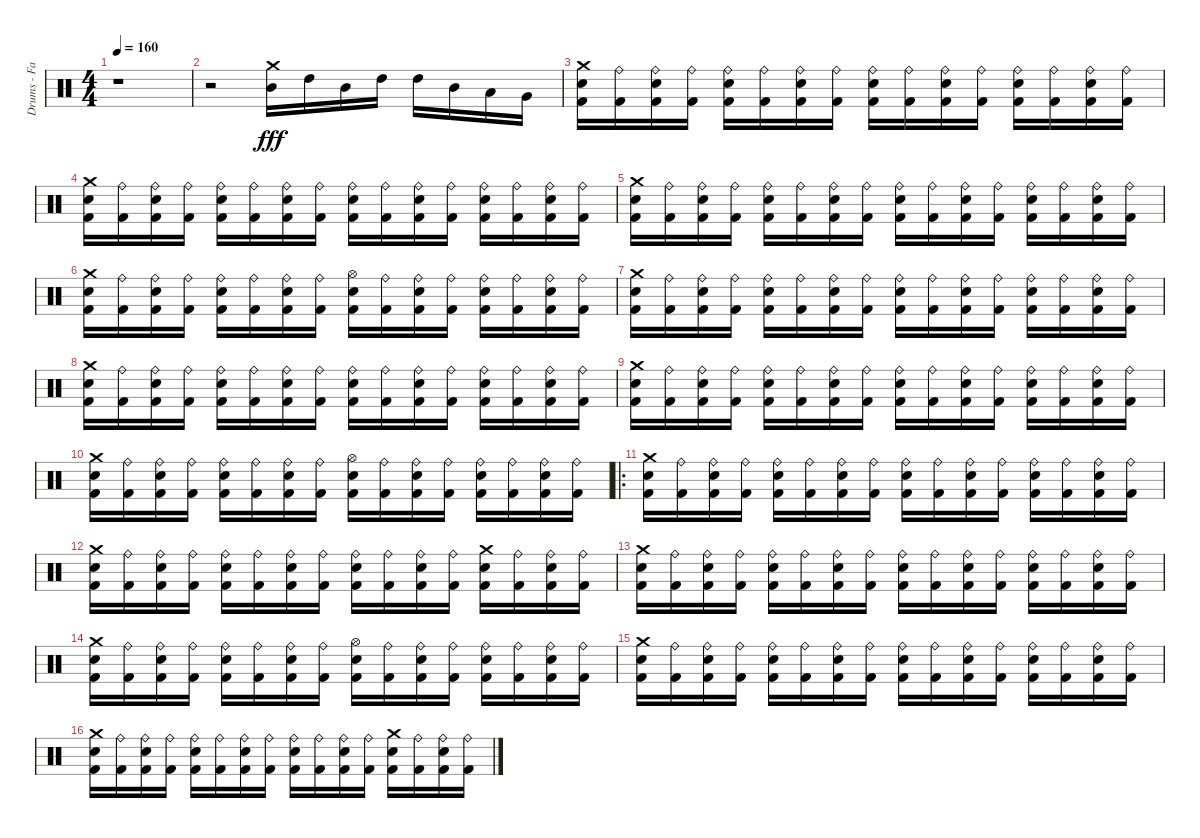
\track ("Drums - Faust" "Drums - Fa") {instrument percussion}
\staff {score}
\articulation defaults
\ts (4 4)
\tempo 160
\clef neutral
\ks c
r.1{dy fff} |
r.2 ("Crash medium (hit)" "Mid Tom (hit)").16 "High Tom (hit)".16 "Mid Tom (hit)".16 "High Tom (hit)".16 "High Tom (hit)".16 "Mid Tom (hit)".16 "Low Tom (hit)".16 "Very Low Tom (hit)".16 |
("Crash medium (hit)" "Electric Snare (hit)" "Kick (hit) 2").16 ("Ride (bell)" "Kick (hit) 2").16 ("Ride (bell)" "Electric Snare (hit)" "Kick (hit) 2").16 ("Ride (bell)" "Kick (hit) 2").16 ("Ride (bell)" "Electric Snare (hit)" "Kick (hit) 2").16 ("Ride (bell)" "Kick (hit) 2").16 ("Ride (bell)" "Electric Snare (hit)" "Kick (hit) 2").16 ("Ride (bell)" "Kick (hit) 2").16 ("Ride (bell)" "Electric Snare (hit)" "Kick (hit) 2").16 ("Ride (bell)" "Kick (hit) 2").16 ("Ride (bell)" "Electric Snare (hit)" "Kick (hit) 2").16 ("Ride (bell)" "Kick (hit) 2").16 ("Ride (bell)" "Electric Snare (hit)" "Kick (hit) 2").16 ("Ride (bell)" "Kick (hit) 2").16 ("Ride (bell)" "Electric Snare (hit)" "Kick (hit) 2").16 ("Ride (bell)" "Kick (hit) 2").16 |
("Crash medium (hit)" "Electric Snare (hit)" "Kick (hit) 2").16 ("Ride (bell)" "Kick (hit) 2").16 ("Ride (bell)" "Electric Snare (hit)" "Kick (hit) 2").16 ("Ride (bell)" "Kick (hit) 2").16 ("Ride (bell)" "Electric Snare (hit)" "Kick (hit) 2").16 ("Ride (bell)" "Kick (hit) 2").16 ("Ride (bell)" "Electric Snare (hit)" "Kick (hit) 2").16 ("Ride (bell)" "Kick (hit) 2").16 ("Ride (bell)" "Electric Snare (hit)" "Kick (hit) 2").16 ("Ride (bell)" "Kick (hit) 2").16 ("Ride (bell)" "Electric Snare (hit)" "Kick (hit) 2").16 ("Ride (bell)" "Kick (hit) 2").16 ("Ride (bell)" "Electric Snare (hit)" "Kick (hit) 2").16 ("Ride (bell)" "Kick (hit) 2").16 ("Ride (bell)" "Electric Snare (hit)" "Kick (hit) 2").16 ("Ride (bell)" "Kick (hit) 2").16 |
("Crash medium (hit)" "Electric Snare (hit)" "Kick (hit) 2").16 ("Ride (bell)" "Kick (hit) 2").16 ("Ride (bell)" "Electric Snare (hit)" "Kick (hit) 2").16 ("Ride (bell)" "Kick (hit) 2").16 ("Ride (bell)" "Electric Snare (hit)" "Kick (hit) 2").16 ("Ride (bell)" "Kick (hit) 2").16 ("Ride (bell)" "Electric Snare (hit)" "Kick (hit) 2").16 ("Ride (bell)" "Kick (hit) 2").16 ("Ride (bell)" "Electric Snare (hit)" "Kick (hit) 2").16 ("Ride (bell)" "Kick (hit) 2").16 ("Ride (bell)" "Electric Snare (hit)" "Kick (hit) 2").16 ("Ride (bell)" "Kick (hit) 2").16 ("Ride (bell)" "Electric Snare (hit)" "Kick (hit) 2").16 ("Ride (bell)" "Kick (hit) 2").16 ("Ride (bell)" "Electric Snare (hit)" "Kick (hit) 2").16 ("Ride (bell)" "Kick (hit) 2").16 |
("Crash medium (hit)" "Electric Snare (hit)" "Kick (hit) 2").16 ("Ride (bell)" "Kick (hit) 2").16 ("Ride (bell)" "Electric Snare (hit)" "Kick (hit) 2").16 ("Ride (bell)" "Kick (hit) 2").16 ("Ride (bell)" "Electric Snare (hit)" "Kick (hit) 2").16 ("Ride (bell)" "Kick (hit) 2").16 ("Ride (bell)" "Electric Snare (hit)" "Kick (hit) 2").16 ("Ride (bell)" "Kick (hit) 2").16 ("Hi-Hat (open)" "Electric Snare (hit)" "Kick (hit) 2").16 ("Ride (bell)" "Kick (hit) 2").16 ("Ride (bell)" "Electric Snare (hit)" "Kick (hit) 2").16 ("Ride (bell)" "Kick (hit) 2").16 ("Ride (bell)" "Electric Snare (hit)" "Kick (hit) 2").16 ("Ride (bell)" "Kick (hit) 2").16 ("Ride (bell)" "Electric Snare (hit)" "Kick (hit) 2").16 ("Ride (bell)" "Kick (hit) 2").16 |
("Crash medium (hit)" "Electric Snare (hit)" "Kick (hit) 2").16 ("Ride (bell)" "Kick (hit) 2").16 ("Ride (bell)" "Electric Snare (hit)" "Kick (hit) 2").16 ("Ride (bell)" "Kick (hit) 2").16 ("Ride (bell)" "Electric Snare (hit)" "Kick (hit) 2").16 ("Ride (bell)" "Kick (hit) 2").16 ("Ride (bell)" "Electric Snare (hit)" "Kick (hit) 2").16 ("Ride (bell)" "Kick (hit) 2").16 ("Ride (bell)" "Electric Snare (hit)" "Kick (hit) 2").16 ("Ride (bell)" "Kick (hit) 2").16 ("Ride (bell)" "Electric Snare (hit)" "Kick (hit) 2").16 ("Ride (bell)" "Kick (hit) 2").16 ("Ride (bell)" "Electric Snare (hit)" "Kick (hit) 2").16 ("Ride (bell)" "Kick (hit) 2").16 ("Ride (bell)" "Electric Snare (hit)" "Kick (hit) 2").16 ("Ride (bell)" "Kick (hit) 2").16 |
("Crash medium (hit)" "Electric Snare (hit)" "Kick (hit) 2").16 ("Ride (bell)" "Kick (hit) 2").16 ("Ride (bell)" "Electric Snare (hit)" "Kick (hit) 2").16 ("Ride (bell)" "Kick (hit) 2").16 ("Ride (bell)" "Electric Snare (hit)" "Kick (hit) 2").16 ("Ride (bell)" "Kick (hit) 2").16 ("Ride (bell)" "Electric Snare (hit)" "Kick (hit) 2").16 ("Ride (bell)" "Kick (hit) 2").16 ("Ride (bell)" "Electric Snare (hit)" "Kick (hit) 2").16 ("Ride (bell)" "Kick (hit) 2").16 ("Ride (bell)" "Electric Snare (hit)" "Kick (hit) 2").16 ("Ride (bell)" "Kick (hit) 2").16 ("Ride (bell)" "Electric Snare (hit)" "Kick (hit) 2").16 ("Ride (bell)" "Kick (hit) 2").16 ("Ride (bell)" "Electric Snare (hit)" "Kick (hit) 2").16 ("Ride (bell)" "Kick (hit) 2").16 |
("Crash medium (hit)" "Electric Snare (hit)" "Kick (hit) 2").16 ("Ride (bell)" "Kick (hit) 2").16 ("Ride (bell)" "Electric Snare (hit)" "Kick (hit) 2").16 ("Ride (bell)" "Kick (hit) 2").16 ("Ride (bell)" "Electric Snare (hit)" "Kick (hit) 2").16 ("Ride (bell)" "Kick (hit) 2").16 ("Ride (bell)" "Electric Snare (hit)" "Kick (hit) 2").16 ("Ride (bell)" "Kick (hit) 2").16 ("Ride (bell)" "Electric Snare (hit)" "Kick (hit) 2").16 ("Ride (bell)" "Kick (hit) 2").16 ("Ride (bell)" "Electric Snare (hit)" "Kick (hit) 2").16 ("Ride (bell)" "Kick (hit) 2").16 ("Ride (bell)" "Electric Snare (hit)" "Kick (hit) 2").16 ("Ride (bell)" "Kick (hit) 2").16 ("Ride (bell)" "Electric Snare (hit)" "Kick (hit) 2").16 ("Ride (bell)" "Kick (hit) 2").16 |
("Crash medium (hit)" "Electric Snare (hit)" "Kick (hit) 2").16 ("Ride (bell)" "Kick (hit) 2").16 ("Ride (bell)" "Electric Snare (hit)" "Kick (hit) 2").16 ("Ride (bell)" "Kick (hit) 2").16 ("Ride (bell)" "Electric Snare (hit)" "Kick (hit) 2").16 ("Ride (bell)" "Kick (hit) 2").16 ("Ride (bell)" "Electric Snare (hit)" "Kick (hit) 2").16 ("Ride (bell)" "Kick (hit) 2").16 ("Hi-Hat (open)" "Electric Snare (hit)" "Kick (hit) 2").16 ("Ride (bell)" "Kick (hit) 2").16 ("Ride (bell)" "Electric Snare (hit)" "Kick (hit) 2").16 ("Ride (bell)" "Kick (hit) 2").16 ("Ride (bell)" "Electric Snare (hit)" "Kick (hit) 2").16 ("Ride (bell)" "Kick (hit) 2").16 ("Ride (bell)" "Electric Snare (hit)" "Kick (hit) 2").16 ("Ride (bell)" "Kick (hit) 2").16 |
\ro
("Crash medium (hit)" "Electric Snare (hit)" "Kick (hit) 2").16 ("Ride (bell)" "Kick (hit) 2").16 ("Ride (bell)" "Electric Snare (hit)" "Kick (hit) 2").16 ("Ride (bell)" "Kick (hit) 2").16 ("Ride (bell)" "Electric Snare (hit)" "Kick (hit) 2").16 ("Ride (bell)" "Kick (hit) 2").16 ("Ride (bell)" "Electric Snare (hit)" "Kick (hit) 2").16 ("Ride (bell)" "Kick (hit) 2").16 ("Ride (bell)" "Electric Snare (hit)" "Kick (hit) 2").16 ("Ride (bell)" "Kick (hit) 2").16 ("Ride (bell)" "Electric Snare (hit)" "Kick (hit) 2").16 ("Ride (bell)" "Kick (hit) 2").16 ("Ride (bell)" "Electric Snare (hit)" "Kick (hit) 2").16 ("Ride (bell)" "Kick (hit) 2").16 ("Ride (bell)" "Electric Snare (hit)" "Kick (hit) 2").16 ("Ride (bell)" "Kick (hit) 2").16 |
("Crash medium (hit)" "Electric Snare (hit)" "Kick (hit) 2").16 ("Ride (bell)" "Kick (hit) 2").16 ("Ride (bell)" "Electric Snare (hit)" "Kick (hit) 2").16 ("Ride (bell)" "Kick (hit) 2").16 ("Ride (bell)" "Electric Snare (hit)" "Kick (hit) 2").16 ("Ride (bell)" "Kick (hit) 2").16 ("Ride (bell)" "Electric Snare (hit)" "Kick (hit) 2").16 ("Ride (bell)" "Kick (hit) 2").16 ("Ride (bell)" "Electric Snare (hit)" "Kick (hit) 2").16 ("Ride (bell)" "Kick (hit) 2").16 ("Ride (bell)" "Electric Snare (hit)" "Kick (hit) 2").16 ("Ride (bell)" "Kick (hit) 2").16 ("Crash medium (hit)" "Electric Snare (hit)" "Kick (hit) 2").16 ("Ride (bell)" "Kick (hit) 2").16 ("Ride (bell)" "Electric Snare (hit)" "Kick (hit) 2").16 ("Ride (bell)" "Kick (hit) 2").16 |
("Crash medium (hit)" "Electric Snare (hit)" "Kick (hit) 2").16 ("Ride (bell)" "Kick (hit) 2").16 ("Ride (bell)" "Electric Snare (hit)" "Kick (hit) 2").16 ("Ride (bell)" "Kick (hit) 2").16 ("Ride (bell)" "Electric Snare (hit)" "Kick (hit) 2").16 ("Ride (bell)" "Kick (hit) 2").16 ("Ride (bell)" "Electric Snare (hit)" "Kick (hit) 2").16 ("Ride (bell)" "Kick (hit) 2").16 ("Ride (bell)" "Electric Snare (hit)" "Kick (hit) 2").16 ("Ride (bell)" "Kick (hit) 2").16 ("Ride (bell)" "Electric Snare (hit)" "Kick (hit) 2").16 ("Ride (bell)" "Kick (hit) 2").16 ("Ride (bell)" "Electric Snare (hit)" "Kick (hit) 2").16 ("Ride (bell)" "Kick (hit) 2").16 ("Ride (bell)" "Electric Snare (hit)" "Kick (hit) 2").16 ("Ride (bell)" "Kick (hit) 2").16 |
("Crash medium (hit)" "Electric Snare (hit)" "Kick (hit) 2").16 ("Ride (bell)" "Kick (hit) 2").16 ("Ride (bell)" "Electric Snare (hit)" "Kick (hit) 2").16 ("Ride (bell)" "Kick (hit) 2").16 ("Ride (bell)" "Electric Snare (hit)" "Kick (hit) 2").16 ("Ride (bell)" "Kick (hit) 2").16 ("Ride (bell)" "Electric Snare (hit)" "Kick (hit) 2").16 ("Ride (bell)" "Kick (hit) 2").16 ("Hi-Hat (open)" "Electric Snare (hit)" "Kick (hit) 2").16 ("Ride (bell)" "Kick (hit) 2").16 ("Ride (bell)" "Electric Snare (hit)" "Kick (hit) 2").16 ("Ride (bell)" "Kick (hit) 2").16 ("Ride (bell)" "Electric Snare (hit)" "Kick (hit) 2").16 ("Ride (bell)" "Kick (hit) 2").16 ("Ride (bell)" "Electric Snare (hit)" "Kick (hit) 2").16 ("Ride (bell)" "Kick (hit) 2").16 |
("Crash medium (hit)" "Electric Snare (hit)" "Kick (hit) 2").16 ("Ride (bell)" "Kick (hit) 2").16 ("Ride (bell)" "Electric Snare (hit)" "Kick (hit) 2").16 ("Ride (bell)" "Kick (hit) 2").16 ("Ride (bell)" "Electric Snare (hit)" "Kick (hit) 2").16 ("Ride (bell)" "Kick (hit) 2").16 ("Ride (bell)" "Electric Snare (hit)" "Kick (hit) 2").16 ("Ride (bell)" "Kick (hit) 2").16 ("Ride (bell)" "Electric Snare (hit)" "Kick (hit) 2").16 ("Ride (bell)" "Kick (hit) 2").16 ("Ride (bell)" "Electric Snare (hit)" "Kick (hit) 2").16 ("Ride (bell)" "Kick (hit) 2").16 ("Ride (bell)" "Electric Snare (hit)" "Kick (hit) 2").16 ("Ride (bell)" "Kick (hit) 2").16 ("Ride (bell)" "Electric Snare (hit)" "Kick (hit) 2").16 ("Ride (bell)" "Kick (hit) 2").16 |
("Crash medium (hit)" "Electric Snare (hit)" "Kick (hit) 2").16 ("Ride (bell)" "Kick (hit) 2").16 ("Ride (bell)" "Electric Snare (hit)" "Kick (hit) 2").16 ("Ride (bell)" "Kick (hit) 2").16 ("Ride (bell)" "Electric Snare (hit)" "Kick (hit) 2").16 ("Ride (bell)" "Kick (hit) 2").16 ("Ride (bell)" "Electric Snare (hit)" "Kick (hit) 2").16 ("Ride (bell)" "Kick (hit) 2").16 ("Ride (bell)" "Electric Snare (hit)" "Kick (hit) 2").16 ("Ride (bell)" "Kick (hit) 2").16 ("Ride (bell)" "Electric Snare (hit)" "Kick (hit) 2").16 ("Ride (bell)" "Kick (hit) 2").16 ("Crash medium (hit)" "Electric Snare (hit)" "Kick (hit) 2").16 ("Ride (bell)" "Kick (hit) 2").16 ("Ride (bell)" "Electric Snare (hit)" "Kick (hit) 2").16 ("Ride (bell)" "Kick (hit) 2").16
